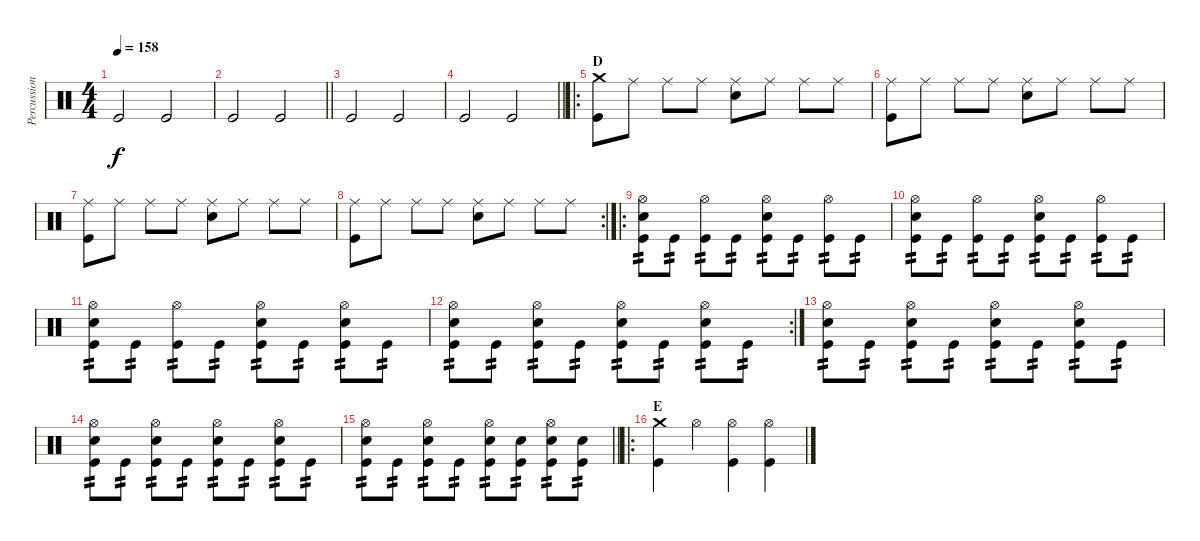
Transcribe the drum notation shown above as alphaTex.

\track ("Percussion" "Percussion") {instrument percussion}
\staff {score}
\articulation defaults
\ts (4 4)
\tempo 158
\clef neutral
\ks c "Kick (hit)".2{dy f} "Kick (hit)".2
|
\barLineRight lightlight "Kick (hit)".2 "Kick (hit)".2
|
"Kick (hit)".2 "Kick (hit)".2 |
\barLineRight lightlight "Kick (hit)".2 "Kick (hit)".2
|
\ro
\section ("" "D")
("Kick (hit)" "Crash medium (hit)").8 "Ride (middle)".8 "Ride (middle)".8 "Ride (middle)".8 ("Snare (hit) 2" "Ride (middle)").8 "Ride (middle)".8 "Ride (middle)".8 "Ride (middle)".8 |
("Kick (hit)" "Ride (middle)").8 "Ride (middle)".8 "Ride (middle)".8 "Ride (middle)".8 ("Snare (hit) 2" "Ride (middle)").8 "Ride (middle)".8 "Ride (middle)".8 "Ride (middle)".8 |
("Kick (hit)" "Ride (middle)").8 "Ride (middle)".8 "Ride (middle)".8 "Ride (middle)".8 ("Snare (hit) 2" "Ride (middle)").8 "Ride (middle)".8 "Ride (middle)".8 "Ride (middle)".8 |
\rc 2
("Kick (hit)" "Ride (middle)").8 "Ride (middle)".8 "Ride (middle)".8 "Ride (middle)".8 ("Snare (hit) 2" "Ride (middle)").8 "Ride (middle)".8 "Ride (middle)".8 "Ride (middle)".8 |
\ro
("Kick (hit)" "Snare (hit) 2" "Hi-Hat (open)").8{tp 2} "Kick (hit)".8{tp 2} ("Kick (hit)" "Hi-Hat (open)").8{tp 2} "Kick (hit)".8{tp 2} ("Kick (hit)" "Snare (hit) 2" "Hi-Hat (open)").8{tp 2} "Kick (hit)".8{tp 2} ("Kick (hit)" "Hi-Hat (open)").8{tp 2} "Kick (hit)".8{tp 2} |
("Kick (hit)" "Snare (hit) 2" "Hi-Hat (open)").8{tp 2} "Kick (hit)".8{tp 2} ("Kick (hit)" "Hi-Hat (open)").8{tp 2} "Kick (hit)".8{tp 2} ("Kick (hit)" "Snare (hit) 2" "Hi-Hat (open)").8{tp 2} "Kick (hit)".8{tp 2} ("Kick (hit)" "Hi-Hat (open)").8{tp 2} "Kick (hit)".8{tp 2} |
("Kick (hit)" "Snare (hit) 2" "Hi-Hat (open)").8{tp 2} "Kick (hit)".8{tp 2} ("Kick (hit)" "Hi-Hat (open)").8{tp 2} "Kick (hit)".8{tp 2} ("Kick (hit)" "Snare (hit) 2" "Hi-Hat (open)").8{tp 2} "Kick (hit)".8{tp 2} ("Kick (hit)" "Snare (hit) 2" "Hi-Hat (open)").8{tp 2} "Kick (hit)".8{tp 2} |
\rc 2
("Kick (hit)" "Snare (hit) 2" "Hi-Hat (open)").8{tp 2} "Kick (hit)".8{tp 2} ("Kick (hit)" "Snare (hit) 2" "Hi-Hat (open)").8{tp 2} "Kick (hit)".8{tp 2} ("Kick (hit)" "Snare (hit) 2" "Hi-Hat (open)").8{tp 2} "Kick (hit)".8{tp 2} ("Kick (hit)" "Snare (hit) 2" "Hi-Hat (open)").8{tp 2} "Kick (hit)".8{tp 2} |
("Kick (hit)" "Snare (hit) 2" "Hi-Hat (open)").8{tp 2} "Kick (hit)".8{tp 2} ("Kick (hit)" "Snare (hit) 2" "Hi-Hat (open)").8{tp 2} "Kick (hit)".8{tp 2} ("Kick (hit)" "Snare (hit) 2" "Hi-Hat (open)").8{tp 2} "Kick (hit)".8{tp 2} ("Kick (hit)" "Snare (hit) 2" "Hi-Hat (open)").8{tp 2} "Kick (hit)".8{tp 2} |
("Kick (hit)" "Snare (hit) 2" "Hi-Hat (open)").8{tp 2} "Kick (hit)".8{tp 2} ("Kick (hit)" "Snare (hit) 2" "Hi-Hat (open)").8{tp 2} "Kick (hit)".8{tp 2} ("Kick (hit)" "Snare (hit) 2" "Hi-Hat (open)").8{tp 2} "Kick (hit)".8{tp 2} ("Kick (hit)" "Snare (hit) 2" "Hi-Hat (open)").8{tp 2} "Kick (hit)".8{tp 2} |
\barLineRight lightlight
("Kick (hit)" "Snare (hit) 2" "Hi-Hat (open)").8{tp 2} "Kick (hit)".8{tp 2} ("Kick (hit)" "Snare (hit) 2" "Hi-Hat (open)").8{tp 2} "Kick (hit)".8{tp 2} ("Kick (hit)" "Snare (hit) 2" "Hi-Hat (open)").8{tp 2} ("Kick (hit)" "Snare (hit) 2").8{tp 2} ("Kick (hit)" "Snare (hit) 2" "Hi-Hat (open)").8{tp 2} ("Kick (hit)" "Snare (hit) 2").8{tp 2} |
\ro
\section ("" "E")
("Kick (hit)" "Crash medium (hit)").4 "Hi-Hat (open)".4 ("Kick (hit)" "Hi-Hat (open)").4 ("Kick (hit)" "Hi-Hat (open)").4
